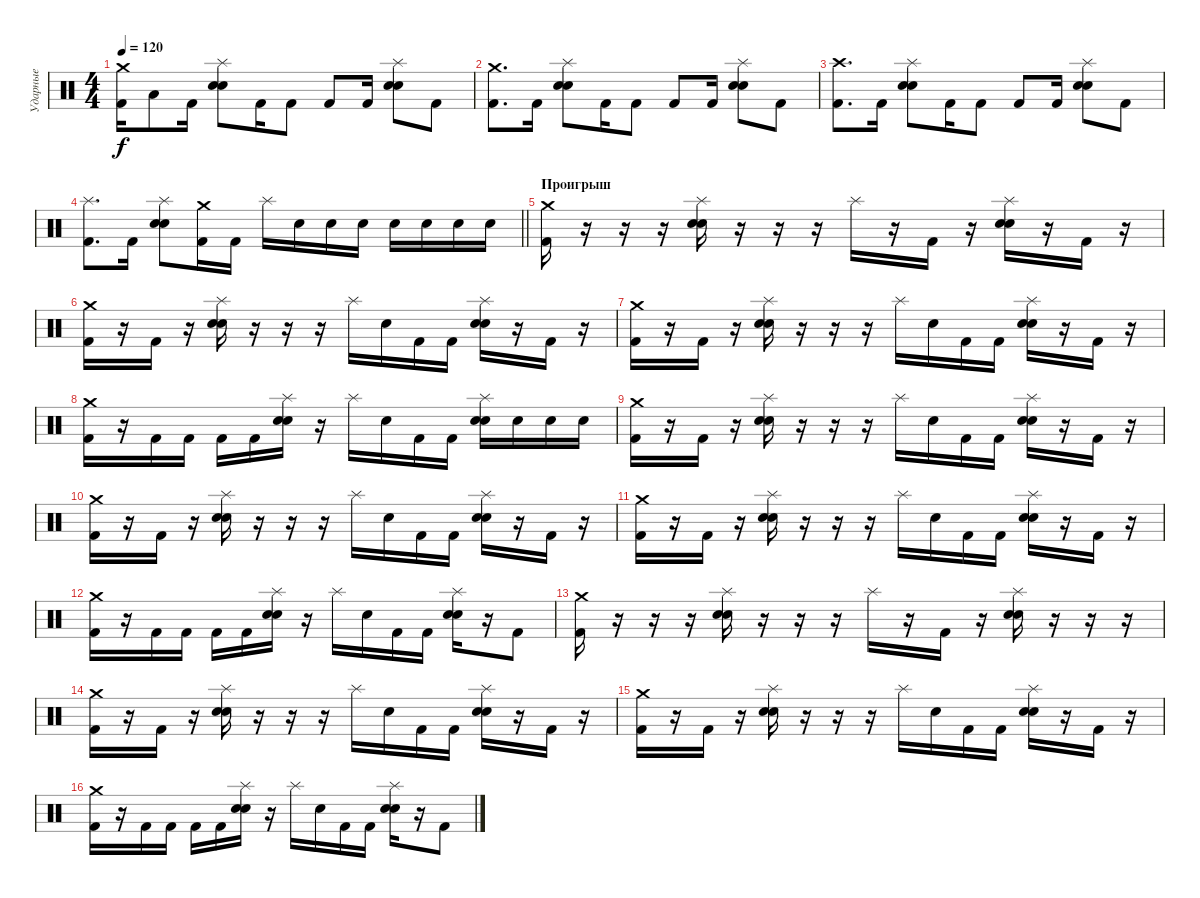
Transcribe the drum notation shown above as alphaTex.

\track ("Ударные" "Ударные") {instrument percussion}
\staff {score}
\articulation defaults
\ts (4 4)
\tempo 120
\clef neutral
\ks c
("Crash medium (hit)" "Kick (hit) 2").16{dy f} "Low Tom (hit)".8 "Kick (hit) 2".16 ("Splash (hit)" "Electric Snare (hit)" "Snare (hit) 2").8 "Kick (hit) 2".16 "Kick (hit) 2".8 "Kick (hit) 2".8 "Kick (hit) 2".16 ("Splash (hit)" "Electric Snare (hit)" "Snare (hit) 2").8 "Kick (hit) 2".8 |
("Crash medium (hit)" "Kick (hit) 2").8{d} "Kick (hit) 2".16 ("Splash (hit)" "Electric Snare (hit)" "Snare (hit) 2").8 "Kick (hit) 2".16 "Kick (hit) 2".8 "Kick (hit) 2".8 "Kick (hit) 2".16 ("Splash (hit)" "Electric Snare (hit)" "Snare (hit) 2").8 "Kick (hit) 2".8 |
("Crash high (hit)" "Kick (hit) 2").8{d} "Kick (hit) 2".16 ("Splash (hit)" "Electric Snare (hit)" "Snare (hit) 2").8 "Kick (hit) 2".16 "Kick (hit) 2".8 "Kick (hit) 2".8 "Kick (hit) 2".16 ("Splash (hit)" "Electric Snare (hit)" "Snare (hit) 2").8 "Kick (hit) 2".8 |
\barLineRight lightlight
("Splash (hit)" "Kick (hit) 2").8{d} "Kick (hit) 2".16 ("Splash (hit)" "Electric Snare (hit)" "Snare (hit) 2").8 ("Crash medium (hit)" "Kick (hit) 2").16 "Kick (hit) 2".16 "Splash (hit)".16 "Electric Snare (hit)".16 "Electric Snare (hit)".16 "Electric Snare (hit)".16 "Electric Snare (hit)".16 "Electric Snare (hit)".16 "Electric Snare (hit)".16 "Electric Snare (hit)".16 |
\section ("" "Проигрыш")
("Crash medium (hit)" "Kick (hit) 2").16 r.16 r.16 r.16 ("Splash (hit)" "Electric Snare (hit)" "Snare (hit) 2").16 r.16 r.16 r.16 "Splash (hit)".16 r.16 "Kick (hit) 2".16 r.16 ("Splash (hit)" "Electric Snare (hit)" "Snare (hit) 2").16 r.16 "Kick (hit) 2".16 r.16 |
("Crash medium (hit)" "Kick (hit) 2").16 r.16 "Kick (hit) 2".16 r.16 ("Splash (hit)" "Electric Snare (hit)" "Snare (hit) 2").16 r.16 r.16 r.16 "Splash (hit)".16 "Electric Snare (hit)".16 "Kick (hit) 2".16 "Kick (hit) 2".16 ("Splash (hit)" "Electric Snare (hit)" "Snare (hit) 2").16 r.16 "Kick (hit) 2".16 r.16 |
("Crash medium (hit)" "Kick (hit) 2").16 r.16 "Kick (hit) 2".16 r.16 ("Splash (hit)" "Electric Snare (hit)" "Snare (hit) 2").16 r.16 r.16 r.16 "Splash (hit)".16 "Electric Snare (hit)".16 "Kick (hit) 2".16 "Kick (hit) 2".16 ("Splash (hit)" "Electric Snare (hit)" "Snare (hit) 2").16 r.16 "Kick (hit) 2".16 r.16 |
("Crash medium (hit)" "Kick (hit) 2").16 r.16 "Kick (hit) 2".16 "Kick (hit) 2".16 "Kick (hit) 2".16 "Kick (hit) 2".16 ("Splash (hit)" "Electric Snare (hit)" "Snare (hit) 2").16 r.16 "Splash (hit)".16 "Electric Snare (hit)".16 "Kick (hit) 2".16 "Kick (hit) 2".16 ("Splash (hit)" "Electric Snare (hit)" "Snare (hit) 2").16 "Electric Snare (hit)".16 "Electric Snare (hit)".16 "Electric Snare (hit)".16 |
("Crash medium (hit)" "Kick (hit) 2").16 r.16 "Kick (hit) 2".16 r.16 ("Splash (hit)" "Electric Snare (hit)" "Snare (hit) 2").16 r.16 r.16 r.16 "Splash (hit)".16 "Electric Snare (hit)".16 "Kick (hit) 2".16 "Kick (hit) 2".16 ("Splash (hit)" "Electric Snare (hit)" "Snare (hit) 2").16 r.16 "Kick (hit) 2".16 r.16 |
("Crash medium (hit)" "Kick (hit) 2").16 r.16 "Kick (hit) 2".16 r.16 ("Splash (hit)" "Electric Snare (hit)" "Snare (hit) 2").16 r.16 r.16 r.16 "Splash (hit)".16 "Electric Snare (hit)".16 "Kick (hit) 2".16 "Kick (hit) 2".16 ("Splash (hit)" "Electric Snare (hit)" "Snare (hit) 2").16 r.16 "Kick (hit) 2".16 r.16 |
("Crash medium (hit)" "Kick (hit) 2").16 r.16 "Kick (hit) 2".16 r.16 ("Splash (hit)" "Electric Snare (hit)" "Snare (hit) 2").16 r.16 r.16 r.16 "Splash (hit)".16 "Electric Snare (hit)".16 "Kick (hit) 2".16 "Kick (hit) 2".16 ("Splash (hit)" "Electric Snare (hit)" "Snare (hit) 2").16 r.16 "Kick (hit) 2".16 r.16 |
("Crash medium (hit)" "Kick (hit) 2").16 r.16 "Kick (hit) 2".16 "Kick (hit) 2".16 "Kick (hit) 2".16 "Kick (hit) 2".16 ("Splash (hit)" "Electric Snare (hit)" "Snare (hit) 2").16 r.16 "Splash (hit)".16 "Electric Snare (hit)".16 "Kick (hit) 2".16 "Kick (hit) 2".16 ("Splash (hit)" "Electric Snare (hit)" "Snare (hit) 2").16 r.16 "Kick (hit) 2".8 |
("Crash medium (hit)" "Kick (hit) 2").16 r.16 r.16 r.16 ("Splash (hit)" "Electric Snare (hit)" "Snare (hit) 2").16 r.16 r.16 r.16 "Splash (hit)".16 r.16 "Kick (hit) 2".16 r.16 ("Splash (hit)" "Electric Snare (hit)" "Snare (hit) 2").16 r.16 r.16 r.16 |
("Crash medium (hit)" "Kick (hit) 2").16 r.16 "Kick (hit) 2".16 r.16 ("Splash (hit)" "Electric Snare (hit)" "Snare (hit) 2").16 r.16 r.16 r.16 "Splash (hit)".16 "Electric Snare (hit)".16 "Kick (hit) 2".16 "Kick (hit) 2".16 ("Splash (hit)" "Electric Snare (hit)" "Snare (hit) 2").16 r.16 "Kick (hit) 2".16 r.16 |
("Crash medium (hit)" "Kick (hit) 2").16 r.16 "Kick (hit) 2".16 r.16 ("Splash (hit)" "Electric Snare (hit)" "Snare (hit) 2").16 r.16 r.16 r.16 "Splash (hit)".16 "Electric Snare (hit)".16 "Kick (hit) 2".16 "Kick (hit) 2".16 ("Splash (hit)" "Electric Snare (hit)" "Snare (hit) 2").16 r.16 "Kick (hit) 2".16 r.16 |
("Crash medium (hit)" "Kick (hit) 2").16 r.16 "Kick (hit) 2".16 "Kick (hit) 2".16 "Kick (hit) 2".16 "Kick (hit) 2".16 ("Splash (hit)" "Electric Snare (hit)" "Snare (hit) 2").16 r.16 "Splash (hit)".16 "Electric Snare (hit)".16 "Kick (hit) 2".16 "Kick (hit) 2".16 ("Splash (hit)" "Electric Snare (hit)" "Snare (hit) 2").16 r.16 "Kick (hit) 2".8
